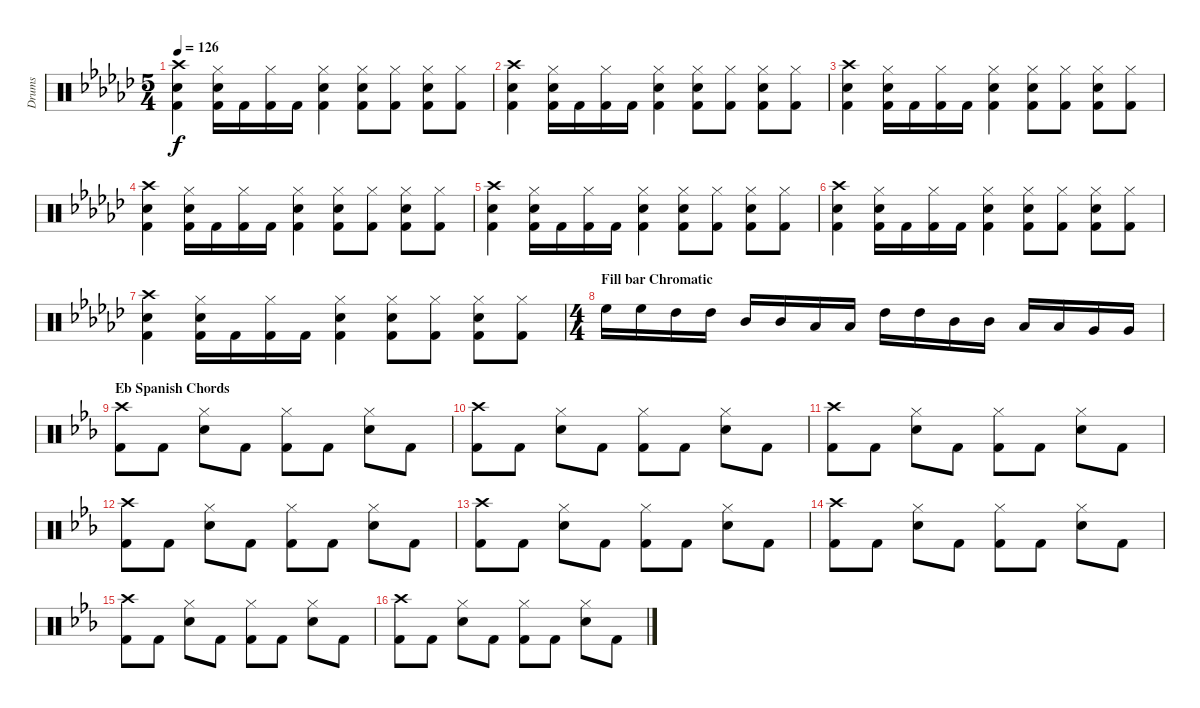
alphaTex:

\track ("Drums" "Drums") {instrument percussion}
\staff {score}
\articulation defaults
\ts (5 4)
\tempo 126
\clef neutral
\ks ebminor
("Crash high (hit)" "Electric Snare (hit)" "Kick (hit) 2").4{dy f} ("Hi-Hat (closed)" "Electric Snare (hit)" "Kick (hit) 2").16 "Kick (hit) 2".16 ("Hi-Hat (closed)" "Kick (hit) 2").16 "Kick (hit) 2".16 ("Hi-Hat (closed)" "Electric Snare (hit)" "Kick (hit) 2").4 ("Hi-Hat (closed)" "Electric Snare (hit)" "Kick (hit) 2").8 ("Hi-Hat (closed)" "Kick (hit) 2").8 ("Hi-Hat (closed)" "Electric Snare (hit)" "Kick (hit) 2").8 ("Hi-Hat (closed)" "Kick (hit) 2").8 |
("Crash high (hit)" "Electric Snare (hit)" "Kick (hit) 2").4 ("Hi-Hat (closed)" "Electric Snare (hit)" "Kick (hit) 2").16 "Kick (hit) 2".16 ("Hi-Hat (closed)" "Kick (hit) 2").16 "Kick (hit) 2".16 ("Hi-Hat (closed)" "Electric Snare (hit)" "Kick (hit) 2").4 ("Hi-Hat (closed)" "Electric Snare (hit)" "Kick (hit) 2").8 ("Hi-Hat (closed)" "Kick (hit) 2").8 ("Hi-Hat (closed)" "Electric Snare (hit)" "Kick (hit) 2").8 ("Hi-Hat (closed)" "Kick (hit) 2").8 |
("Crash high (hit)" "Electric Snare (hit)" "Kick (hit) 2").4 ("Hi-Hat (closed)" "Electric Snare (hit)" "Kick (hit) 2").16 "Kick (hit) 2".16 ("Hi-Hat (closed)" "Kick (hit) 2").16 "Kick (hit) 2".16 ("Hi-Hat (closed)" "Electric Snare (hit)" "Kick (hit) 2").4 ("Hi-Hat (closed)" "Electric Snare (hit)" "Kick (hit) 2").8 ("Hi-Hat (closed)" "Kick (hit) 2").8 ("Hi-Hat (closed)" "Electric Snare (hit)" "Kick (hit) 2").8 ("Hi-Hat (closed)" "Kick (hit) 2").8 |
("Crash high (hit)" "Electric Snare (hit)" "Kick (hit) 2").4 ("Hi-Hat (closed)" "Electric Snare (hit)" "Kick (hit) 2").16 "Kick (hit) 2".16 ("Hi-Hat (closed)" "Kick (hit) 2").16 "Kick (hit) 2".16 ("Hi-Hat (closed)" "Electric Snare (hit)" "Kick (hit) 2").4 ("Hi-Hat (closed)" "Electric Snare (hit)" "Kick (hit) 2").8 ("Hi-Hat (closed)" "Kick (hit) 2").8 ("Hi-Hat (closed)" "Electric Snare (hit)" "Kick (hit) 2").8 ("Hi-Hat (closed)" "Kick (hit) 2").8 |
("Crash high (hit)" "Electric Snare (hit)" "Kick (hit) 2").4 ("Hi-Hat (closed)" "Electric Snare (hit)" "Kick (hit) 2").16 "Kick (hit) 2".16 ("Hi-Hat (closed)" "Kick (hit) 2").16 "Kick (hit) 2".16 ("Hi-Hat (closed)" "Electric Snare (hit)" "Kick (hit) 2").4 ("Hi-Hat (closed)" "Electric Snare (hit)" "Kick (hit) 2").8 ("Hi-Hat (closed)" "Kick (hit) 2").8 ("Hi-Hat (closed)" "Electric Snare (hit)" "Kick (hit) 2").8 ("Hi-Hat (closed)" "Kick (hit) 2").8 |
("Crash high (hit)" "Electric Snare (hit)" "Kick (hit) 2").4 ("Hi-Hat (closed)" "Electric Snare (hit)" "Kick (hit) 2").16 "Kick (hit) 2".16 ("Hi-Hat (closed)" "Kick (hit) 2").16 "Kick (hit) 2".16 ("Hi-Hat (closed)" "Electric Snare (hit)" "Kick (hit) 2").4 ("Hi-Hat (closed)" "Electric Snare (hit)" "Kick (hit) 2").8 ("Hi-Hat (closed)" "Kick (hit) 2").8 ("Hi-Hat (closed)" "Electric Snare (hit)" "Kick (hit) 2").8 ("Hi-Hat (closed)" "Kick (hit) 2").8 |
("Crash high (hit)" "Electric Snare (hit)" "Kick (hit) 2").4 ("Hi-Hat (closed)" "Electric Snare (hit)" "Kick (hit) 2").16 "Kick (hit) 2".16 ("Hi-Hat (closed)" "Kick (hit) 2").16 "Kick (hit) 2".16 ("Hi-Hat (closed)" "Electric Snare (hit)" "Kick (hit) 2").4 ("Hi-Hat (closed)" "Electric Snare (hit)" "Kick (hit) 2").8 ("Hi-Hat (closed)" "Kick (hit) 2").8 ("Hi-Hat (closed)" "Electric Snare (hit)" "Kick (hit) 2").8 ("Hi-Hat (closed)" "Kick (hit) 2").8 |
\ts (4 4)
\section ("" "Fill bar Chromatic")
"High Floor Tom (hit)".16 "High Floor Tom (hit)".16 "High Tom (hit)".16 "High Tom (hit)".16 "Mid Tom (hit)".16 "Mid Tom (hit)".16 "Low Tom (hit)".16 "Low Tom (hit)".16 "High Tom (hit)".16 "High Tom (hit)".16 "Mid Tom (hit)".16 "Mid Tom (hit)".16 "Low Tom (hit)".16 "Low Tom (hit)".16 "Very Low Tom (hit)".16 "Very Low Tom (hit)".16 |
\section ("" "Eb Spanish Chords")
\ks eb
("Crash high (hit)" "Kick (hit) 2").8 "Kick (hit) 2".8 ("Hi-Hat (closed)" "Electric Snare (hit)").8 "Kick (hit) 2".8 ("Hi-Hat (closed)" "Kick (hit) 2").8 "Kick (hit) 2".8 ("Hi-Hat (closed)" "Electric Snare (hit)").8 "Kick (hit) 2".8 |
("Crash high (hit)" "Kick (hit) 2").8 "Kick (hit) 2".8 ("Hi-Hat (closed)" "Electric Snare (hit)").8 "Kick (hit) 2".8 ("Hi-Hat (closed)" "Kick (hit) 2").8 "Kick (hit) 2".8 ("Hi-Hat (closed)" "Electric Snare (hit)").8 "Kick (hit) 2".8 |
("Crash high (hit)" "Kick (hit) 2").8 "Kick (hit) 2".8 ("Hi-Hat (closed)" "Electric Snare (hit)").8 "Kick (hit) 2".8 ("Hi-Hat (closed)" "Kick (hit) 2").8 "Kick (hit) 2".8 ("Hi-Hat (closed)" "Electric Snare (hit)").8 "Kick (hit) 2".8 |
("Crash high (hit)" "Kick (hit) 2").8 "Kick (hit) 2".8 ("Hi-Hat (closed)" "Electric Snare (hit)").8 "Kick (hit) 2".8 ("Hi-Hat (closed)" "Kick (hit) 2").8 "Kick (hit) 2".8 ("Hi-Hat (closed)" "Electric Snare (hit)").8 "Kick (hit) 2".8 |
("Crash high (hit)" "Kick (hit) 2").8 "Kick (hit) 2".8 ("Hi-Hat (closed)" "Electric Snare (hit)").8 "Kick (hit) 2".8 ("Hi-Hat (closed)" "Kick (hit) 2").8 "Kick (hit) 2".8 ("Hi-Hat (closed)" "Electric Snare (hit)").8 "Kick (hit) 2".8 |
("Crash high (hit)" "Kick (hit) 2").8 "Kick (hit) 2".8 ("Hi-Hat (closed)" "Electric Snare (hit)").8 "Kick (hit) 2".8 ("Hi-Hat (closed)" "Kick (hit) 2").8 "Kick (hit) 2".8 ("Hi-Hat (closed)" "Electric Snare (hit)").8 "Kick (hit) 2".8 |
("Crash high (hit)" "Kick (hit) 2").8 "Kick (hit) 2".8 ("Hi-Hat (closed)" "Electric Snare (hit)").8 "Kick (hit) 2".8 ("Hi-Hat (closed)" "Kick (hit) 2").8 "Kick (hit) 2".8 ("Hi-Hat (closed)" "Electric Snare (hit)").8 "Kick (hit) 2".8 |
("Crash high (hit)" "Kick (hit) 2").8 "Kick (hit) 2".8 ("Hi-Hat (closed)" "Electric Snare (hit)").8 "Kick (hit) 2".8 ("Hi-Hat (closed)" "Kick (hit) 2").8 "Kick (hit) 2".8 ("Hi-Hat (closed)" "Electric Snare (hit)").8 "Kick (hit) 2".8
